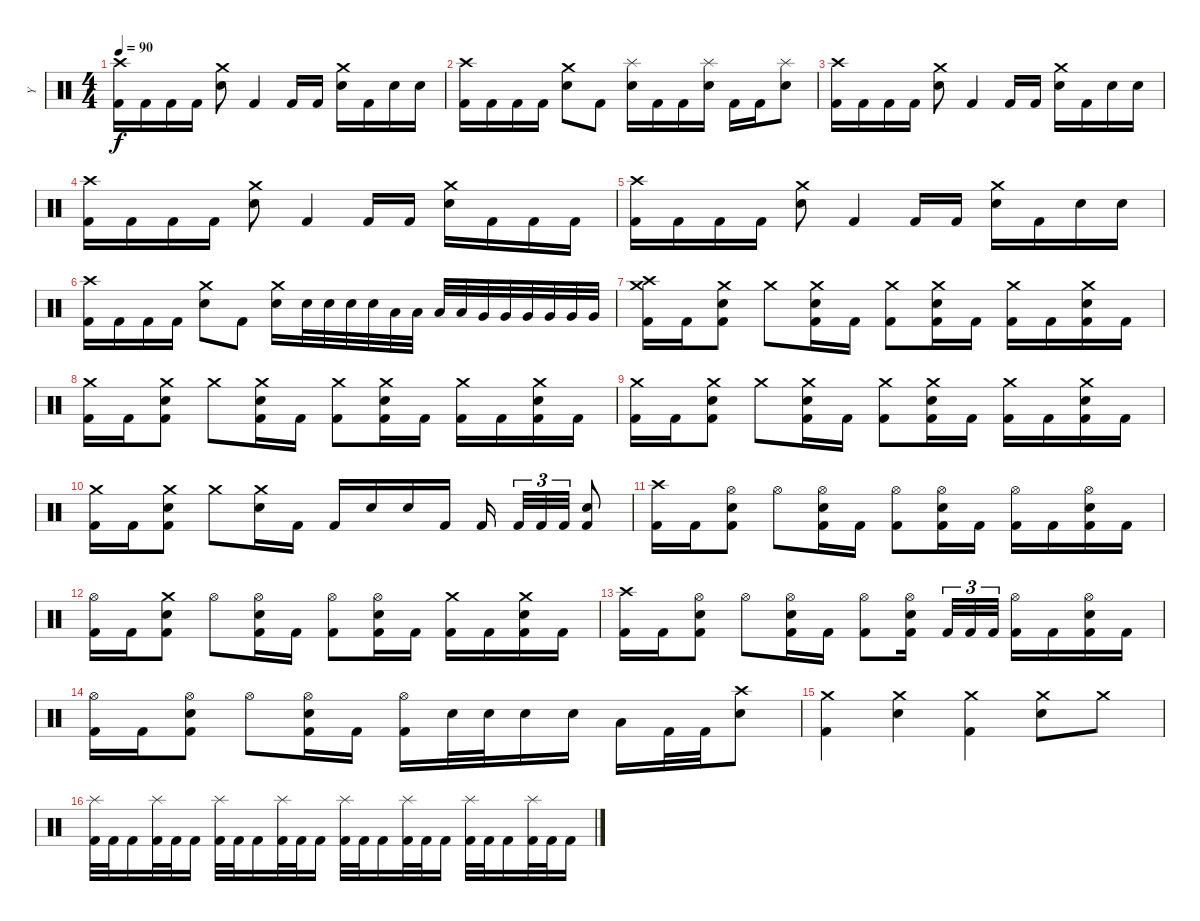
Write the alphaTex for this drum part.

\track ("Y" "Y") {instrument percussion}
\staff {score}
\articulation defaults
\ts (4 4)
\tempo 90
\clef neutral
\ks c
("Crash high (hit)" "Kick (hit) 2").16{dy f} "Kick (hit) 2".16 "Kick (hit) 2".16 "Kick (hit) 2".16 ("Crash medium (hit)" "Electric Snare (hit)").8 "Kick (hit) 2".4 "Kick (hit) 2".16 "Kick (hit) 2".16 ("Crash medium (hit)" "Electric Snare (hit)").16 "Kick (hit) 2".16 "Electric Snare (hit)".16 "Electric Snare (hit)".16 |
("Crash high (hit)" "Kick (hit) 2").16 "Kick (hit) 2".16 "Kick (hit) 2".16 "Kick (hit) 2".16 ("Crash medium (hit)" "Electric Snare (hit)").8 "Kick (hit) 2".8 ("Splash (hit)" "Electric Snare (hit)").16 "Kick (hit) 2".16 "Kick (hit) 2".16 ("Splash (hit)" "Electric Snare (hit)").16 "Kick (hit) 2".16 "Kick (hit) 2".16 ("Splash (hit)" "Electric Snare (hit)").8 |
("Crash high (hit)" "Kick (hit) 2").16 "Kick (hit) 2".16 "Kick (hit) 2".16 "Kick (hit) 2".16 ("Crash medium (hit)" "Electric Snare (hit)").8 "Kick (hit) 2".4 "Kick (hit) 2".16 "Kick (hit) 2".16 ("Crash medium (hit)" "Electric Snare (hit)").16 "Kick (hit) 2".16 "Electric Snare (hit)".16 "Electric Snare (hit)".16 |
("Crash high (hit)" "Kick (hit) 2").16 "Kick (hit) 2".16 "Kick (hit) 2".16 "Kick (hit) 2".16 ("Crash medium (hit)" "Electric Snare (hit)").8 "Kick (hit) 2".4 "Kick (hit) 2".16 "Kick (hit) 2".16 ("Crash medium (hit)" "Electric Snare (hit)").16 "Kick (hit) 2".16 "Kick (hit) 2".16 "Kick (hit) 2".16 |
("Crash high (hit)" "Kick (hit) 2").16 "Kick (hit) 2".16 "Kick (hit) 2".16 "Kick (hit) 2".16 ("Crash medium (hit)" "Electric Snare (hit)").8 "Kick (hit) 2".4 "Kick (hit) 2".16 "Kick (hit) 2".16 ("Crash medium (hit)" "Electric Snare (hit)").16 "Kick (hit) 2".16 "Electric Snare (hit)".16 "Electric Snare (hit)".16 |
("Crash high (hit)" "Kick (hit) 2").16 "Kick (hit) 2".16 "Kick (hit) 2".16 "Kick (hit) 2".16 ("Crash medium (hit)" "Electric Snare (hit)").8 "Kick (hit) 2".8 ("Crash medium (hit)" "Electric Snare (hit)").16 "Electric Snare (hit)".32 "Electric Snare (hit)".32 "Electric Snare (hit)".32 "Electric Snare (hit)".32 "Low Tom (hit)".32 "Low Tom (hit)".32 "Low Tom (hit)".32 "Low Tom (hit)".32 "Very Low Tom (hit)".32 "Very Low Tom (hit)".32 "Very Low Tom (hit)".32 "Very Low Tom (hit)".32 "Very Low Tom (hit)".32 "Very Low Tom (hit)".32 |
("Crash high (hit)" "Crash medium (hit)" "Kick (hit) 2").16 "Kick (hit) 2".16 ("Crash medium (hit)" "Electric Snare (hit)" "Kick (hit) 2").8 "Crash medium (hit)".8 ("Crash medium (hit)" "Electric Snare (hit)" "Kick (hit) 2").16 "Kick (hit) 2".16 ("Crash medium (hit)" "Kick (hit) 2").8 ("Crash medium (hit)" "Electric Snare (hit)" "Kick (hit) 2").16 "Kick (hit) 2".16 ("Crash medium (hit)" "Kick (hit) 2").16 "Kick (hit) 2".16 ("Crash medium (hit)" "Electric Snare (hit)" "Kick (hit) 2").16 "Kick (hit) 2".16 |
("Crash medium (hit)" "Kick (hit) 2").16 "Kick (hit) 2".16 ("Crash medium (hit)" "Electric Snare (hit)" "Kick (hit) 2").8 "Crash medium (hit)".8 ("Crash medium (hit)" "Electric Snare (hit)" "Kick (hit) 2").16 "Kick (hit) 2".16 ("Crash medium (hit)" "Kick (hit) 2").8 ("Crash medium (hit)" "Electric Snare (hit)" "Kick (hit) 2").16 "Kick (hit) 2".16 ("Crash medium (hit)" "Kick (hit) 2").16 "Kick (hit) 2".16 ("Crash medium (hit)" "Electric Snare (hit)" "Kick (hit) 2").16 "Kick (hit) 2".16 |
("Crash medium (hit)" "Kick (hit) 2").16 "Kick (hit) 2".16 ("Crash medium (hit)" "Electric Snare (hit)" "Kick (hit) 2").8 "Crash medium (hit)".8 ("Crash medium (hit)" "Electric Snare (hit)" "Kick (hit) 2").16 "Kick (hit) 2".16 ("Crash medium (hit)" "Kick (hit) 2").8 ("Crash medium (hit)" "Electric Snare (hit)" "Kick (hit) 2").16 "Kick (hit) 2".16 ("Crash medium (hit)" "Kick (hit) 2").16 "Kick (hit) 2".16 ("Crash medium (hit)" "Electric Snare (hit)" "Kick (hit) 2").16 "Kick (hit) 2".16 |
("Crash medium (hit)" "Kick (hit) 2").16 "Kick (hit) 2".16 ("Crash medium (hit)" "Electric Snare (hit)" "Kick (hit) 2").8 "Crash medium (hit)".8 ("Crash medium (hit)" "Electric Snare (hit)").16 "Kick (hit) 2".16 "Kick (hit) 2".16 "Electric Snare (hit)".16 "Electric Snare (hit)".16 "Kick (hit) 2".16 "Kick (hit) 2".16 "Kick (hit) 2".32{tu (3 2)} "Kick (hit) 2".32{tu (3 2)} "Kick (hit) 2".32{tu (3 2)} ("Electric Snare (hit)" "Kick (hit) 2").8 |
("Crash high (hit)" "Kick (hit) 2").16 "Kick (hit) 2".16 ("Hi-Hat (open)" "Electric Snare (hit)" "Kick (hit) 2").8 "Hi-Hat (open)".8 ("Hi-Hat (open)" "Electric Snare (hit)" "Kick (hit) 2").16 "Kick (hit) 2".16 ("Hi-Hat (open)" "Kick (hit) 2").8 ("Hi-Hat (open)" "Electric Snare (hit)" "Kick (hit) 2").16 "Kick (hit) 2".16 ("Hi-Hat (open)" "Kick (hit) 2").16 "Kick (hit) 2".16 ("Hi-Hat (open)" "Electric Snare (hit)" "Kick (hit) 2").16 "Kick (hit) 2".16 |
("Hi-Hat (open)" "Kick (hit) 2").16 "Kick (hit) 2".16 ("Crash medium (hit)" "Electric Snare (hit)" "Kick (hit) 2").8 "Hi-Hat (open)".8 ("Hi-Hat (open)" "Electric Snare (hit)" "Kick (hit) 2").16 "Kick (hit) 2".16 ("Hi-Hat (open)" "Kick (hit) 2").8 ("Hi-Hat (open)" "Electric Snare (hit)" "Kick (hit) 2").16 "Kick (hit) 2".16 ("Crash medium (hit)" "Kick (hit) 2").16 "Kick (hit) 2".16 ("Crash medium (hit)" "Electric Snare (hit)" "Kick (hit) 2").16 "Kick (hit) 2".16 |
("Crash high (hit)" "Kick (hit) 2").16 "Kick (hit) 2".16 ("Hi-Hat (open)" "Electric Snare (hit)" "Kick (hit) 2").8 "Hi-Hat (open)".8 ("Hi-Hat (open)" "Electric Snare (hit)" "Kick (hit) 2").16 "Kick (hit) 2".16 ("Hi-Hat (open)" "Kick (hit) 2").8 ("Hi-Hat (open)" "Electric Snare (hit)" "Kick (hit) 2").16 "Kick (hit) 2".32{tu (3 2)} "Kick (hit) 2".32{tu (3 2)} "Kick (hit) 2".32{tu (3 2)} ("Hi-Hat (open)" "Kick (hit) 2").16 "Kick (hit) 2".16 ("Hi-Hat (open)" "Electric Snare (hit)" "Kick (hit) 2").16 "Kick (hit) 2".16 |
("Hi-Hat (open)" "Kick (hit) 2").16 "Kick (hit) 2".16 ("Hi-Hat (open)" "Electric Snare (hit)" "Kick (hit) 2").8 "Hi-Hat (open)".8 ("Hi-Hat (open)" "Electric Snare (hit)" "Kick (hit) 2").16 "Kick (hit) 2".16 ("Hi-Hat (open)" "Kick (hit) 2").16 "Electric Snare (hit)".32 "Electric Snare (hit)".32 "Electric Snare (hit)".16 "Electric Snare (hit)".16 "Low Tom (hit)".16 "Kick (hit) 2".32 "Kick (hit) 2".32 ("Crash high (hit)" "Electric Snare (hit)").8 |
("Crash medium (hit)" "Kick (hit) 2").4 ("Crash medium (hit)" "Electric Snare (hit)").4 ("Crash medium (hit)" "Kick (hit) 2").4 ("Crash medium (hit)" "Electric Snare (hit)").8 "Crash medium (hit)".8 |
("Splash (hit)" "Kick (hit) 2").32 "Kick (hit) 2".32 "Kick (hit) 2".16 ("Splash (hit)" "Kick (hit) 2").32 "Kick (hit) 2".32 "Kick (hit) 2".16 ("Splash (hit)" "Kick (hit) 2").32 "Kick (hit) 2".32 "Kick (hit) 2".16 ("Splash (hit)" "Kick (hit) 2").32 "Kick (hit) 2".32 "Kick (hit) 2".16 ("Splash (hit)" "Kick (hit) 2").32 "Kick (hit) 2".32 "Kick (hit) 2".16 ("Splash (hit)" "Kick (hit) 2").32 "Kick (hit) 2".32 "Kick (hit) 2".16 ("Splash (hit)" "Kick (hit) 2").32 "Kick (hit) 2".32 "Kick (hit) 2".16 ("Splash (hit)" "Kick (hit) 2").32 "Kick (hit) 2".32 "Kick (hit) 2".16
